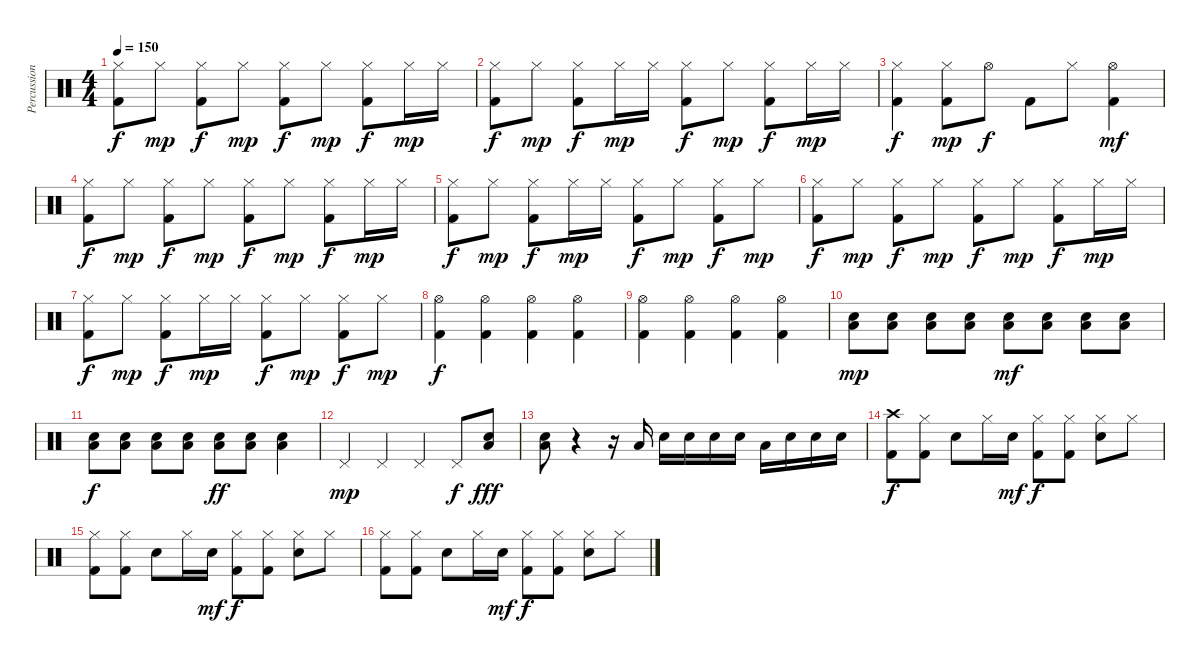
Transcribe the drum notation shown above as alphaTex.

\track ("Percussion" "Percussion") {instrument percussion}
\staff {score}
\articulation defaults
\ts (4 4)
\tempo 150
\clef neutral
\ks c
("Kick (hit) 2" "Hi-Hat (closed)").8{dy f} "Hi-Hat (closed)".8{dy mp} ("Kick (hit) 2" "Hi-Hat (closed)").8{dy f} "Hi-Hat (closed)".8{dy mp} ("Kick (hit) 2" "Hi-Hat (closed)").8{dy f} "Hi-Hat (closed)".8{dy mp} ("Kick (hit) 2" "Hi-Hat (closed)").8{dy f} "Hi-Hat (closed)".16{dy mp} "Hi-Hat (closed)".16 |
("Kick (hit) 2" "Hi-Hat (closed)").8{dy f} "Hi-Hat (closed)".8{dy mp} ("Kick (hit) 2" "Hi-Hat (closed)").8{dy f} "Hi-Hat (closed)".16{dy mp} "Hi-Hat (closed)".16 ("Kick (hit) 2" "Hi-Hat (closed)").8{dy f} "Hi-Hat (closed)".8{dy mp} ("Kick (hit) 2" "Hi-Hat (closed)").8{dy f} "Hi-Hat (closed)".16{dy mp} "Hi-Hat (closed)".16 |
("Kick (hit) 2" "Hi-Hat (closed)").4{dy f} ("Kick (hit) 2" "Hi-Hat (closed)").8{dy mp} "Hi-Hat (open)".8{dy f} "Kick (hit) 2".8 "Hi-Hat (closed)".8 ("Hi-Hat (open)" "Kick (hit) 2").4{dy mf} |
("Kick (hit) 2" "Hi-Hat (closed)").8{dy f} "Hi-Hat (closed)".8{dy mp} ("Kick (hit) 2" "Hi-Hat (closed)").8{dy f} "Hi-Hat (closed)".8{dy mp} ("Kick (hit) 2" "Hi-Hat (closed)").8{dy f} "Hi-Hat (closed)".8{dy mp} ("Kick (hit) 2" "Hi-Hat (closed)").8{dy f} "Hi-Hat (closed)".16{dy mp} "Hi-Hat (closed)".16 |
("Kick (hit) 2" "Hi-Hat (closed)").8{dy f} "Hi-Hat (closed)".8{dy mp} ("Kick (hit) 2" "Hi-Hat (closed)").8{dy f} "Hi-Hat (closed)".16{dy mp} "Hi-Hat (closed)".16 ("Kick (hit) 2" "Hi-Hat (closed)").8{dy f} "Hi-Hat (closed)".8{dy mp} ("Kick (hit) 2" "Hi-Hat (closed)").8{dy f} "Hi-Hat (closed)".8{dy mp} |
("Kick (hit) 2" "Hi-Hat (closed)").8{dy f} "Hi-Hat (closed)".8{dy mp} ("Kick (hit) 2" "Hi-Hat (closed)").8{dy f} "Hi-Hat (closed)".8{dy mp} ("Kick (hit) 2" "Hi-Hat (closed)").8{dy f} "Hi-Hat (closed)".8{dy mp} ("Kick (hit) 2" "Hi-Hat (closed)").8{dy f} "Hi-Hat (closed)".16{dy mp} "Hi-Hat (closed)".16 |
("Kick (hit) 2" "Hi-Hat (closed)").8{dy f} "Hi-Hat (closed)".8{dy mp} ("Kick (hit) 2" "Hi-Hat (closed)").8{dy f} "Hi-Hat (closed)".16{dy mp} "Hi-Hat (closed)".16 ("Kick (hit) 2" "Hi-Hat (closed)").8{dy f} "Hi-Hat (closed)".8{dy mp} ("Kick (hit) 2" "Hi-Hat (closed)").8{dy f} "Hi-Hat (closed)".8{dy mp} |
("Kick (hit) 2" "Hi-Hat (open)").4{dy f} ("Kick (hit) 2" "Hi-Hat (open)").4 ("Kick (hit) 2" "Hi-Hat (open)").4 ("Kick (hit) 2" "Hi-Hat (open)").4 |
("Kick (hit) 2" "Hi-Hat (open)").4 ("Kick (hit) 2" "Hi-Hat (open)").4 ("Kick (hit) 2" "Hi-Hat (open)").4 ("Kick (hit) 2" "Hi-Hat (open)").4 |
("Low Floor Tom (hit)" "Electric Snare (hit)").8{dy mp} ("Low Floor Tom (hit)" "Electric Snare (hit)").8 ("Low Floor Tom (hit)" "Electric Snare (hit)").8 ("Low Floor Tom (hit)" "Electric Snare (hit)").8 ("Low Floor Tom (hit)" "Electric Snare (hit)").8{dy mf} ("Low Floor Tom (hit)" "Electric Snare (hit)").8 ("Low Floor Tom (hit)" "Electric Snare (hit)").8 ("Low Floor Tom (hit)" "Electric Snare (hit)").8 |
("Low Floor Tom (hit)" "Electric Snare (hit)").8{dy f} ("Low Floor Tom (hit)" "Electric Snare (hit)").8 ("Low Floor Tom (hit)" "Electric Snare (hit)").8 ("Low Floor Tom (hit)" "Electric Snare (hit)").8 ("Low Floor Tom (hit)" "Electric Snare (hit)").8{dy ff} ("Low Floor Tom (hit)" "Electric Snare (hit)").8 ("Low Floor Tom (hit)" "Electric Snare (hit)").4 |
"Pedal Hi-Hat (hit)".4{dy mp} "Pedal Hi-Hat (hit)".4 "Pedal Hi-Hat (hit)".4 "Pedal Hi-Hat (hit)".8{dy f} ("Low Floor Tom (hit)" "Electric Snare (hit)").8{dy fff} |
("Low Floor Tom (hit)" "Electric Snare (hit)").8 r.4 r.16 "Low Tom (hit)".16 "Snare (hit) 2".16 "Snare (hit) 2".16 "Snare (hit) 2".16 "Snare (hit) 2".16 "Low Floor Tom (hit)".16 "Snare (hit) 2".16 "Snare (hit) 2".16 "Snare (hit) 2".16 |
("Kick (hit) 2" "Crash high (hit)").8{dy f} ("Kick (hit) 2" "Hi-Hat (closed)").8 "Electric Snare (hit)".8 "Hi-Hat (closed)".16 "Electric Snare (hit)".16{dy mf} ("Kick (hit) 2" "Hi-Hat (closed)").8{dy f} ("Kick (hit) 2" "Hi-Hat (closed)").8 ("Electric Snare (hit)" "Hi-Hat (closed)").8 "Hi-Hat (closed)".8 |
("Kick (hit) 2" "Hi-Hat (closed)").8 ("Kick (hit) 2" "Hi-Hat (closed)").8 "Electric Snare (hit)".8 "Hi-Hat (closed)".16 "Electric Snare (hit)".16{dy mf} ("Kick (hit) 2" "Hi-Hat (closed)").8{dy f} ("Kick (hit) 2" "Hi-Hat (closed)").8 ("Electric Snare (hit)" "Hi-Hat (closed)").8 "Hi-Hat (closed)".8 |
("Kick (hit) 2" "Hi-Hat (closed)").8 ("Kick (hit) 2" "Hi-Hat (closed)").8 "Electric Snare (hit)".8 "Hi-Hat (closed)".16 "Electric Snare (hit)".16{dy mf} ("Kick (hit) 2" "Hi-Hat (closed)").8{dy f} ("Kick (hit) 2" "Hi-Hat (closed)").8 ("Electric Snare (hit)" "Hi-Hat (closed)").8 "Hi-Hat (closed)".8
